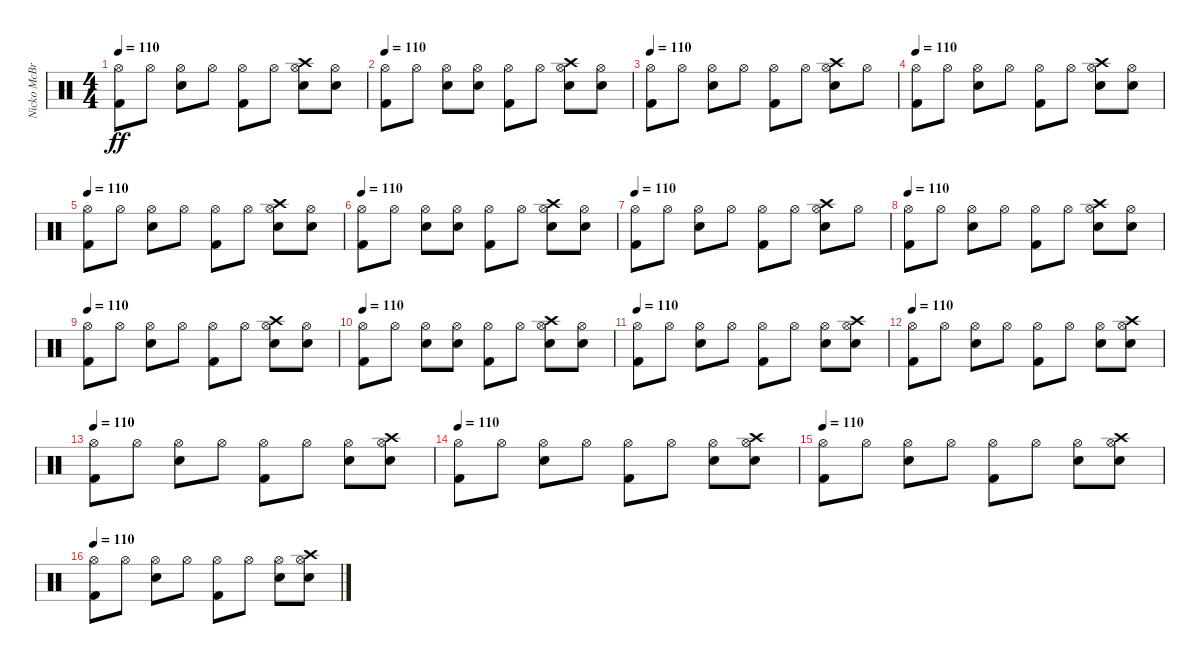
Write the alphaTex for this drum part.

\track ("Nicko McBrain" "Nicko McBr") {instrument percussion}
\staff {score}
\articulation defaults
\ts (4 4)
\tempo 110
\clef neutral
\ks c
("Kick (hit) 2" "Hi-Hat (open)").8{dy ff} "Hi-Hat (open)".8 ("Snare (hit) 2" "Hi-Hat (open)").8 "Hi-Hat (open)".8 ("Kick (hit) 2" "Hi-Hat (open)").8 "Hi-Hat (open)".8 ("Snare (hit) 2" "Hi-Hat (open)" "Crash high (hit)").8 ("Snare (hit) 2" "Hi-Hat (open)").8 |
\tempo 110
("Kick (hit) 2" "Hi-Hat (open)").8 "Hi-Hat (open)".8 ("Snare (hit) 2" "Hi-Hat (open)").8 ("Snare (hit) 2" "Hi-Hat (open)").8 ("Kick (hit) 2" "Hi-Hat (open)").8 "Hi-Hat (open)".8 ("Snare (hit) 2" "Hi-Hat (open)" "Crash high (hit)").8 ("Snare (hit) 2" "Hi-Hat (open)").8 |
\tempo 110
("Kick (hit) 2" "Hi-Hat (open)").8 "Hi-Hat (open)".8 ("Snare (hit) 2" "Hi-Hat (open)").8 "Hi-Hat (open)".8 ("Kick (hit) 2" "Hi-Hat (open)").8 "Hi-Hat (open)".8 ("Snare (hit) 2" "Hi-Hat (open)" "Crash high (hit)").8 "Hi-Hat (open)".8 |
\tempo 110
("Kick (hit) 2" "Hi-Hat (open)").8 "Hi-Hat (open)".8 ("Snare (hit) 2" "Hi-Hat (open)").8 "Hi-Hat (open)".8 ("Kick (hit) 2" "Hi-Hat (open)").8 "Hi-Hat (open)".8 ("Snare (hit) 2" "Hi-Hat (open)" "Crash high (hit)").8 ("Snare (hit) 2" "Hi-Hat (open)").8 |
\tempo 110
("Kick (hit) 2" "Hi-Hat (open)").8 "Hi-Hat (open)".8 ("Snare (hit) 2" "Hi-Hat (open)").8 "Hi-Hat (open)".8 ("Kick (hit) 2" "Hi-Hat (open)").8 "Hi-Hat (open)".8 ("Snare (hit) 2" "Hi-Hat (open)" "Crash high (hit)").8 ("Snare (hit) 2" "Hi-Hat (open)").8 |
\tempo 110
("Kick (hit) 2" "Hi-Hat (open)").8 "Hi-Hat (open)".8 ("Snare (hit) 2" "Hi-Hat (open)").8 ("Snare (hit) 2" "Hi-Hat (open)").8 ("Kick (hit) 2" "Hi-Hat (open)").8 "Hi-Hat (open)".8 ("Snare (hit) 2" "Hi-Hat (open)" "Crash high (hit)").8 ("Snare (hit) 2" "Hi-Hat (open)").8 |
\tempo 110
("Kick (hit) 2" "Hi-Hat (open)").8 "Hi-Hat (open)".8 ("Snare (hit) 2" "Hi-Hat (open)").8 "Hi-Hat (open)".8 ("Kick (hit) 2" "Hi-Hat (open)").8 "Hi-Hat (open)".8 ("Snare (hit) 2" "Hi-Hat (open)" "Crash high (hit)").8 "Hi-Hat (open)".8 |
\tempo 110
("Kick (hit) 2" "Hi-Hat (open)").8 "Hi-Hat (open)".8 ("Snare (hit) 2" "Hi-Hat (open)").8 "Hi-Hat (open)".8 ("Kick (hit) 2" "Hi-Hat (open)").8 "Hi-Hat (open)".8 ("Snare (hit) 2" "Hi-Hat (open)" "Crash high (hit)").8 ("Snare (hit) 2" "Hi-Hat (open)").8 |
\tempo 110
("Kick (hit) 2" "Hi-Hat (open)").8 "Hi-Hat (open)".8 ("Snare (hit) 2" "Hi-Hat (open)").8 "Hi-Hat (open)".8 ("Kick (hit) 2" "Hi-Hat (open)").8 "Hi-Hat (open)".8 ("Snare (hit) 2" "Hi-Hat (open)" "Crash high (hit)").8 ("Snare (hit) 2" "Hi-Hat (open)").8 |
\tempo 110
("Kick (hit) 2" "Hi-Hat (open)").8 "Hi-Hat (open)".8 ("Snare (hit) 2" "Hi-Hat (open)").8 ("Snare (hit) 2" "Hi-Hat (open)").8 ("Kick (hit) 2" "Hi-Hat (open)").8 "Hi-Hat (open)".8 ("Snare (hit) 2" "Hi-Hat (open)" "Crash high (hit)").8 ("Snare (hit) 2" "Hi-Hat (open)").8 |
\tempo 110
("Kick (hit) 2" "Hi-Hat (open)").8 "Hi-Hat (open)".8 ("Snare (hit) 2" "Hi-Hat (open)").8 "Hi-Hat (open)".8 ("Kick (hit) 2" "Hi-Hat (open)").8 "Hi-Hat (open)".8 ("Snare (hit) 2" "Hi-Hat (open)").8 ("Snare (hit) 2" "Hi-Hat (open)" "Crash high (hit)").8 |
\tempo 110
("Kick (hit) 2" "Hi-Hat (open)").8 "Hi-Hat (open)".8 ("Snare (hit) 2" "Hi-Hat (open)").8 "Hi-Hat (open)".8 ("Kick (hit) 2" "Hi-Hat (open)").8 "Hi-Hat (open)".8 ("Snare (hit) 2" "Hi-Hat (open)").8 ("Snare (hit) 2" "Hi-Hat (open)" "Crash high (hit)").8 |
\tempo 110
("Kick (hit) 2" "Hi-Hat (open)").8 "Hi-Hat (open)".8 ("Snare (hit) 2" "Hi-Hat (open)").8 "Hi-Hat (open)".8 ("Kick (hit) 2" "Hi-Hat (open)").8 "Hi-Hat (open)".8 ("Snare (hit) 2" "Hi-Hat (open)").8 ("Snare (hit) 2" "Hi-Hat (open)" "Crash high (hit)").8 |
\tempo 110
("Kick (hit) 2" "Hi-Hat (open)").8 "Hi-Hat (open)".8 ("Snare (hit) 2" "Hi-Hat (open)").8 "Hi-Hat (open)".8 ("Kick (hit) 2" "Hi-Hat (open)").8 "Hi-Hat (open)".8 ("Snare (hit) 2" "Hi-Hat (open)").8 ("Snare (hit) 2" "Hi-Hat (open)" "Crash high (hit)").8 |
\tempo 110
("Kick (hit) 2" "Hi-Hat (open)").8 "Hi-Hat (open)".8 ("Snare (hit) 2" "Hi-Hat (open)").8 "Hi-Hat (open)".8 ("Kick (hit) 2" "Hi-Hat (open)").8 "Hi-Hat (open)".8 ("Snare (hit) 2" "Hi-Hat (open)").8 ("Snare (hit) 2" "Hi-Hat (open)" "Crash high (hit)").8 |
\tempo 110
("Kick (hit) 2" "Hi-Hat (open)").8 "Hi-Hat (open)".8 ("Snare (hit) 2" "Hi-Hat (open)").8 "Hi-Hat (open)".8 ("Kick (hit) 2" "Hi-Hat (open)").8 "Hi-Hat (open)".8 ("Snare (hit) 2" "Hi-Hat (open)").8 ("Snare (hit) 2" "Hi-Hat (open)" "Crash high (hit)").8
